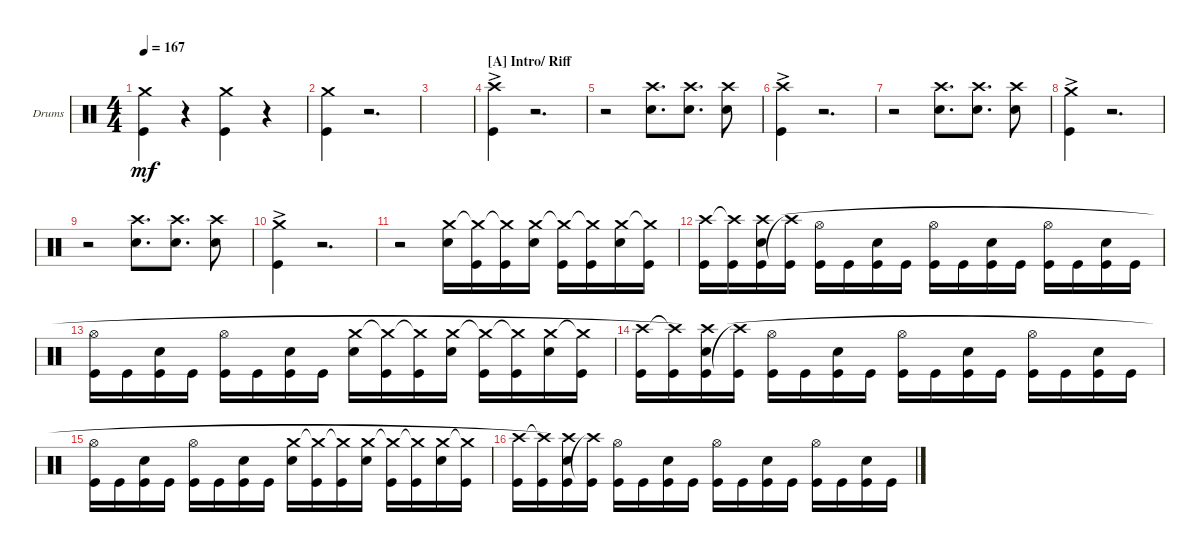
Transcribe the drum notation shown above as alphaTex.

\defaultSystemsLayout 4
\bracketExtendMode groupsimilarinstruments
\firstSystemTrackNameOrientation horizontal
\otherSystemsTrackNameOrientation horizontal
\track ("Drumkit" "Drums") {instrument percussion}
\staff {score}
\articulation defaults
\ts (4 4)
\tempo 167
\clef neutral
\scale
0.333333
\ks c
("Kick (hit)" "Crash medium (hit)").4{dy mf} r.4 ("Kick (hit)" "Crash medium (hit)").4 r.4 |
\scale
0.333333 ("Kick (hit)" "Crash medium (hit)").4 r.2{d} |
\scale
0.333333 |
\section ("A" "Intro/ Riff")
\scale
0.333333 ("Kick (hit)"{ac} "Crash high (hit)").4 r.2{d} |
\scale
0.333333 r.2 ("Snare (hit) 2" "Crash high (hit)").8{d} ("Snare (hit) 2" "Crash high (hit)").8{d} ("Snare (hit) 2" "Crash high (hit)").8 |
\scale
0.333333 ("Kick (hit)"{ac} "Crash high (hit)").4 r.2{d} |
\scale
0.333333 r.2 ("Snare (hit) 2" "Crash high (hit)").8{d} ("Snare (hit) 2" "Crash high (hit)").8{d} ("Snare (hit) 2" "Crash high (hit)").8 |
\scale
0.333333 ("Kick (hit)"{ac} "Crash medium (hit)").4 r.2{d} |
\scale
0.333333 r.2 ("Snare (hit) 2" "Crash high (hit)").8{d} ("Snare (hit) 2" "Crash high (hit)").8{d} ("Snare (hit) 2" "Crash high (hit)").8 |
\scale
0.333333 ("Kick (hit)"{ac} "Crash medium (hit)").4 r.2{d} |
\scale
0.333333 r.2 ("Snare (hit) 2" "Crash medium (hit)").16 ("Kick (hit)" "Crash medium (hit)"{t}).16 ("Kick (hit)" "Crash medium (hit)"{t}).16 ("Snare (hit) 2" "Crash medium (hit)").16 ("Kick (hit)" "Crash medium (hit)"{t}).16 ("Kick (hit)" "Crash medium (hit)"{t}).16 ("Snare (hit) 2" "Crash medium (hit)").16 ("Kick (hit)" "Crash medium (hit)"{t}).16 |
\scale
0.333333 ("Kick (hit)" "Crash high (hit)").16 ("Kick (hit)" "Crash high (hit)"{t}).16 ("Snare (hit) 2" "Kick (hit)" "Crash high (hit)").16 ("Kick (hit)" "Crash high (hit)"{t}).16 ("Hi-Hat (open)" "Kick (hit)").16 "Kick (hit)".16 ("Kick (hit)" "Snare (hit) 2").16 "Kick (hit)".16 ("Kick (hit)" "Hi-Hat (open)").16 "Kick (hit)".16 ("Kick (hit)" "Snare (hit) 2").16 "Kick (hit)".16 ("Kick (hit)" "Hi-Hat (open)").16 "Kick (hit)".16 ("Kick (hit)" "Snare (hit) 2").16 "Kick (hit)".16 |
\scale
0.333333 ("Kick (hit)" "Hi-Hat (open)").16 "Kick (hit)".16 ("Snare (hit) 2" "Kick (hit)").16 "Kick (hit)".16 ("Hi-Hat (open)" "Kick (hit)").16 "Kick (hit)".16 ("Kick (hit)" "Snare (hit) 2").16 "Kick (hit)".16 ("Snare (hit) 2" "Crash medium (hit)").16 ("Kick (hit)" "Crash medium (hit)"{t}).16 ("Kick (hit)" "Crash medium (hit)"{t}).16 ("Snare (hit) 2" "Crash medium (hit)").16 ("Kick (hit)" "Crash medium (hit)"{t}).16 ("Kick (hit)" "Crash medium (hit)"{t}).16 ("Snare (hit) 2" "Crash medium (hit)").16 ("Kick (hit)" "Crash medium (hit)"{t}).16 |
\scale
0.333333 ("Kick (hit)" "Crash high (hit)").16 ("Kick (hit)" "Crash high (hit)"{t}).16 ("Snare (hit) 2" "Kick (hit)" "Crash high (hit)"{t}).16 ("Kick (hit)" "Crash high (hit)"{t}).16 ("Hi-Hat (open)" "Kick (hit)").16 "Kick (hit)".16 ("Kick (hit)" "Snare (hit) 2").16 "Kick (hit)".16 ("Kick (hit)" "Hi-Hat (open)").16 "Kick (hit)".16 ("Kick (hit)" "Snare (hit) 2").16 "Kick (hit)".16 ("Kick (hit)" "Hi-Hat (open)").16 "Kick (hit)".16 ("Kick (hit)" "Snare (hit) 2").16 "Kick (hit)".16 |
\scale
0.333333 ("Kick (hit)" "Hi-Hat (open)").16 "Kick (hit)".16 ("Snare (hit) 2" "Kick (hit)").16 "Kick (hit)".16 ("Hi-Hat (open)" "Kick (hit)").16 "Kick (hit)".16 ("Kick (hit)" "Snare (hit) 2").16 "Kick (hit)".16 ("Snare (hit) 2" "Crash medium (hit)").16 ("Kick (hit)" "Crash medium (hit)"{t}).16 ("Kick (hit)" "Crash medium (hit)"{t}).16 ("Snare (hit) 2" "Crash medium (hit)").16 ("Kick (hit)" "Crash medium (hit)"{t}).16 ("Kick (hit)" "Crash medium (hit)"{t}).16 ("Snare (hit) 2" "Crash medium (hit)").16 ("Kick (hit)" "Crash medium (hit)"{t}).16 |
\scale
0.333333 ("Kick (hit)" "Crash high (hit)").16 ("Kick (hit)" "Crash high (hit)"{t}).16 ("Snare (hit) 2" "Kick (hit)" "Crash high (hit)"{t}).16 ("Kick (hit)" "Crash high (hit)"{t}).16 ("Hi-Hat (open)" "Kick (hit)").16 "Kick (hit)".16 ("Kick (hit)" "Snare (hit) 2").16 "Kick (hit)".16 ("Kick (hit)" "Hi-Hat (open)").16 "Kick (hit)".16 ("Kick (hit)" "Snare (hit) 2").16 "Kick (hit)".16 ("Kick (hit)" "Hi-Hat (open)").16 "Kick (hit)".16 ("Kick (hit)" "Snare (hit) 2").16 "Kick (hit)".16
